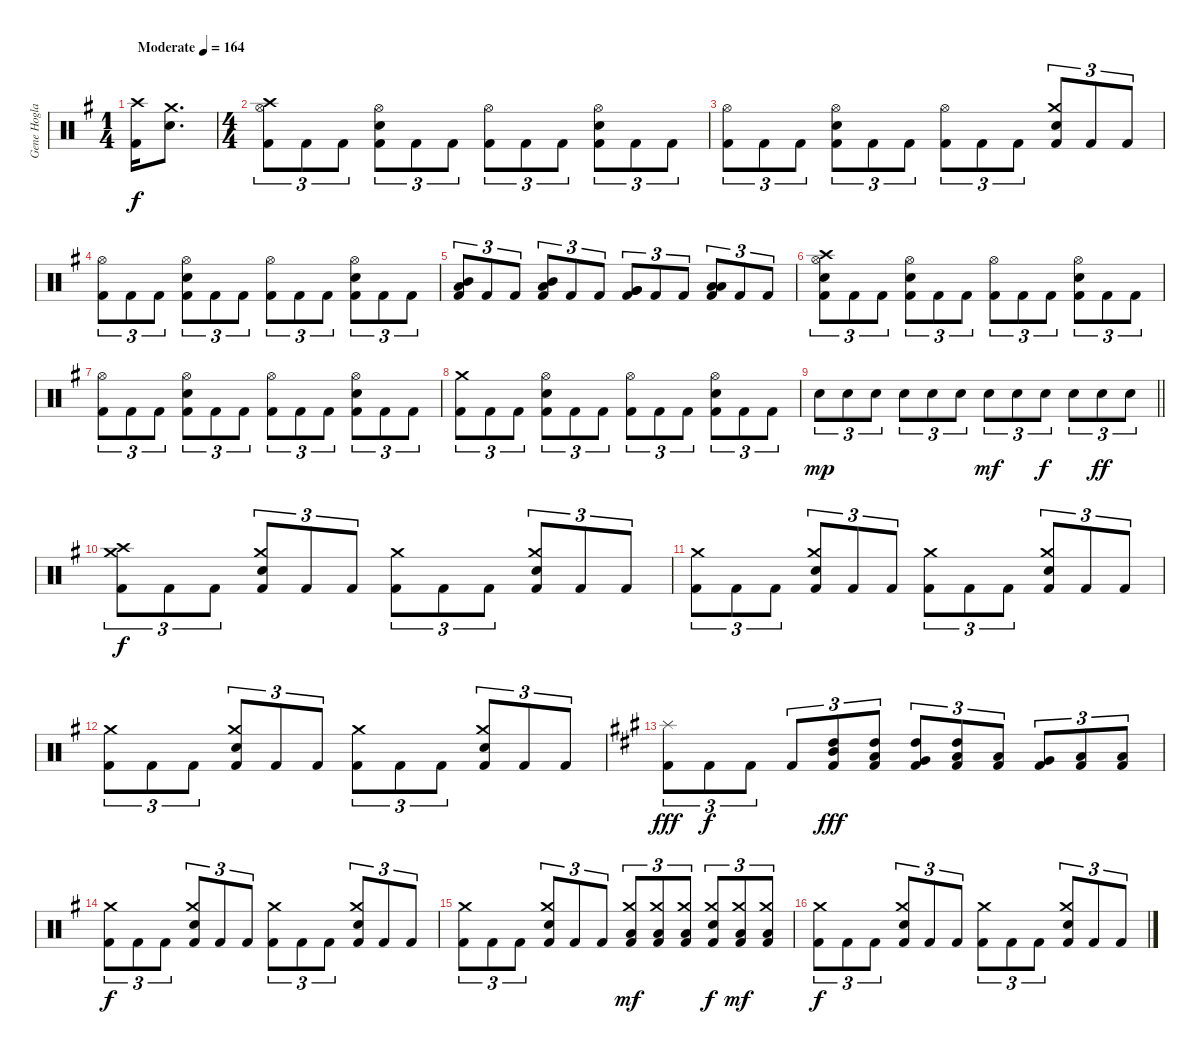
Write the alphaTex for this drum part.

\track ("Gene Hoglan" "Gene Hogla") {instrument percussion}
\staff {score}
\articulation defaults
\ts (1 4)
\tempo (164 "Moderate")
\clef neutral
\ks g
("Crash high (hit)" "Kick (hit) 2").16{dy f} ("Crash medium (hit)" "Electric Snare (hit)").8{d} |
\ts (4 4)
("Crash high (hit)" "Hi-Hat (open)" "Kick (hit) 2").8{tu (3 2)} "Kick (hit) 2".8{tu (3 2)} "Kick (hit) 2".8{tu (3 2)} ("Hi-Hat (open)" "Electric Snare (hit)" "Kick (hit) 2").8{tu (3 2)} "Kick (hit) 2".8{tu (3 2)} "Kick (hit) 2".8{tu (3 2)} ("Hi-Hat (open)" "Kick (hit) 2").8{tu (3 2)} "Kick (hit) 2".8{tu (3 2)} "Kick (hit) 2".8{tu (3 2)} ("Hi-Hat (open)" "Electric Snare (hit)" "Kick (hit) 2").8{tu (3 2)} "Kick (hit) 2".8{tu (3 2)} "Kick (hit) 2".8{tu (3 2)} |
("Hi-Hat (open)" "Kick (hit) 2").8{tu (3 2)} "Kick (hit) 2".8{tu (3 2)} "Kick (hit) 2".8{tu (3 2)} ("Hi-Hat (open)" "Electric Snare (hit)" "Kick (hit) 2").8{tu (3 2)} "Kick (hit) 2".8{tu (3 2)} "Kick (hit) 2".8{tu (3 2)} ("Hi-Hat (open)" "Kick (hit) 2").8{tu (3 2)} "Kick (hit) 2".8{tu (3 2)} "Kick (hit) 2".8{tu (3 2)} ("Crash medium (hit)" "Electric Snare (hit)" "Kick (hit) 2").8{tu (3 2)} "Kick (hit) 2".8{tu (3 2)} "Kick (hit) 2".8{tu (3 2)} |
("Hi-Hat (open)" "Kick (hit) 2").8{tu (3 2)} "Kick (hit) 2".8{tu (3 2)} "Kick (hit) 2".8{tu (3 2)} ("Hi-Hat (open)" "Electric Snare (hit)" "Kick (hit) 2").8{tu (3 2)} "Kick (hit) 2".8{tu (3 2)} "Kick (hit) 2".8{tu (3 2)} ("Hi-Hat (open)" "Kick (hit) 2").8{tu (3 2)} "Kick (hit) 2".8{tu (3 2)} "Kick (hit) 2".8{tu (3 2)} ("Hi-Hat (open)" "Electric Snare (hit)" "Kick (hit) 2").8{tu (3 2)} "Kick (hit) 2".8{tu (3 2)} "Kick (hit) 2".8{tu (3 2)} |
("Low Tom (hit)" "Mid Tom (hit)" "Kick (hit) 2").8{tu (3 2)} "Kick (hit) 2".8{tu (3 2)} "Kick (hit) 2".8{tu (3 2)} ("Low Tom (hit)" "Mid Tom (hit)" "Kick (hit) 2").8{tu (3 2)} "Kick (hit) 2".8{tu (3 2)} "Kick (hit) 2".8{tu (3 2)} ("Very Low Tom (hit)" "Very Low Tom (hit)" "Kick (hit) 2").8{tu (3 2)} "Kick (hit) 2".8{tu (3 2)} "Kick (hit) 2".8{tu (3 2)} ("Low Floor Tom (hit)" "Low Floor Tom (hit)" "Kick (hit) 2").8{tu (3 2)} "Kick (hit) 2".8{tu (3 2)} "Kick (hit) 2".8{tu (3 2)} |
("Crash high (hit)" "Hi-Hat (open)" "Electric Snare (hit)" "Kick (hit) 2").8{tu (3 2)} "Kick (hit) 2".8{tu (3 2)} "Kick (hit) 2".8{tu (3 2)} ("Hi-Hat (open)" "Electric Snare (hit)" "Kick (hit) 2").8{tu (3 2)} "Kick (hit) 2".8{tu (3 2)} "Kick (hit) 2".8{tu (3 2)} ("Hi-Hat (open)" "Kick (hit) 2").8{tu (3 2)} "Kick (hit) 2".8{tu (3 2)} "Kick (hit) 2".8{tu (3 2)} ("Hi-Hat (open)" "Electric Snare (hit)" "Kick (hit) 2").8{tu (3 2)} "Kick (hit) 2".8{tu (3 2)} "Kick (hit) 2".8{tu (3 2)} |
("Hi-Hat (open)" "Kick (hit) 2").8{tu (3 2)} "Kick (hit) 2".8{tu (3 2)} "Kick (hit) 2".8{tu (3 2)} ("Hi-Hat (open)" "Electric Snare (hit)" "Kick (hit) 2").8{tu (3 2)} "Kick (hit) 2".8{tu (3 2)} "Kick (hit) 2".8{tu (3 2)} ("Hi-Hat (open)" "Kick (hit) 2").8{tu (3 2)} "Kick (hit) 2".8{tu (3 2)} "Kick (hit) 2".8{tu (3 2)} ("Hi-Hat (open)" "Electric Snare (hit)" "Kick (hit) 2").8{tu (3 2)} "Kick (hit) 2".8{tu (3 2)} "Kick (hit) 2".8{tu (3 2)} |
("Crash medium (hit)" "Kick (hit) 2").8{tu (3 2)} "Kick (hit) 2".8{tu (3 2)} "Kick (hit) 2".8{tu (3 2)} ("Hi-Hat (open)" "Electric Snare (hit)" "Kick (hit) 2").8{tu (3 2)} "Kick (hit) 2".8{tu (3 2)} "Kick (hit) 2".8{tu (3 2)} ("Hi-Hat (open)" "Kick (hit) 2").8{tu (3 2)} "Kick (hit) 2".8{tu (3 2)} "Kick (hit) 2".8{tu (3 2)} ("Hi-Hat (open)" "Electric Snare (hit)" "Kick (hit) 2").8{tu (3 2)} "Kick (hit) 2".8{tu (3 2)} "Kick (hit) 2".8{tu (3 2)} |
\barLineRight lightlight "Electric Snare (hit)".8{tu (3 2) dy mp} "Electric Snare (hit)".8{tu (3 2)} "Electric Snare (hit)".8{tu (3 2)} "Electric Snare (hit)".8{tu (3 2)} "Electric Snare (hit)".8{tu (3 2)} "Electric Snare (hit)".8{tu (3 2)} "Electric Snare (hit)".8{tu (3 2) dy mf} "Electric Snare (hit)".8{tu (3 2)} "Electric Snare (hit)".8{tu (3 2) dy f} "Electric Snare (hit)".8{tu (3 2)} "Electric Snare (hit)".8{tu (3 2) dy ff} "Electric Snare (hit)".8{tu (3 2)}
|
("Crash medium (hit)" "Crash high (hit)" "Kick (hit) 2").8{tu (3 2) dy f} "Kick (hit) 2".8{tu (3 2)} "Kick (hit) 2".8{tu (3 2)} ("Crash medium (hit)" "Electric Snare (hit)" "Kick (hit) 2").8{tu (3 2)} "Kick (hit) 2".8{tu (3 2)} "Kick (hit) 2".8{tu (3 2)} ("Crash medium (hit)" "Kick (hit) 2").8{tu (3 2)} "Kick (hit) 2".8{tu (3 2)} "Kick (hit) 2".8{tu (3 2)} ("Crash medium (hit)" "Electric Snare (hit)" "Kick (hit) 2").8{tu (3 2)} "Kick (hit) 2".8{tu (3 2)} "Kick (hit) 2".8{tu (3 2)} |
("Crash medium (hit)" "Kick (hit) 2").8{tu (3 2)} "Kick (hit) 2".8{tu (3 2)} "Kick (hit) 2".8{tu (3 2)} ("Crash medium (hit)" "Electric Snare (hit)" "Kick (hit) 2").8{tu (3 2)} "Kick (hit) 2".8{tu (3 2)} "Kick (hit) 2".8{tu (3 2)} ("Crash medium (hit)" "Kick (hit) 2").8{tu (3 2)} "Kick (hit) 2".8{tu (3 2)} "Kick (hit) 2".8{tu (3 2)} ("Crash medium (hit)" "Electric Snare (hit)" "Kick (hit) 2").8{tu (3 2)} "Kick (hit) 2".8{tu (3 2)} "Kick (hit) 2".8{tu (3 2)} |
("Crash medium (hit)" "Kick (hit) 2").8{tu (3 2)} "Kick (hit) 2".8{tu (3 2)} "Kick (hit) 2".8{tu (3 2)} ("Crash medium (hit)" "Electric Snare (hit)" "Kick (hit) 2").8{tu (3 2)} "Kick (hit) 2".8{tu (3 2)} "Kick (hit) 2".8{tu (3 2)} ("Crash medium (hit)" "Kick (hit) 2").8{tu (3 2)} "Kick (hit) 2".8{tu (3 2)} "Kick (hit) 2".8{tu (3 2)} ("Crash medium (hit)" "Electric Snare (hit)" "Kick (hit) 2").8{tu (3 2)} "Kick (hit) 2".8{tu (3 2)} "Kick (hit) 2".8{tu (3 2)} |
\ks a
("Splash (hit)" "Kick (hit) 2").8{tu (3 2) dy fff} "Kick (hit) 2".8{tu (3 2) dy f} "Kick (hit) 2".8{tu (3 2)} "Kick (hit) 2".8{tu (3 2)} ("High Tom (hit)" "Mid Tom (hit)" "Kick (hit) 2").8{tu (3 2) dy fff} ("High Tom (hit)" "Low Tom (hit)" "Kick (hit) 2").8{tu (3 2)} ("High Tom (hit)" "Very Low Tom (hit)" "Kick (hit) 2").8{tu (3 2)} ("High Tom (hit)" "Low Tom (hit)" "Kick (hit) 2").8{tu (3 2)} ("Low Tom (hit)" "Kick (hit) 2").8{tu (3 2)} ("Very Low Tom (hit)" "Kick (hit) 2").8{tu (3 2)} ("Low Floor Tom (hit)" "Kick (hit) 2").8{tu (3 2)} ("Low Floor Tom (hit)" "Kick (hit) 2").8{tu (3 2)} |
\ks g
("Crash medium (hit)" "Kick (hit) 2").8{tu (3 2) dy f} "Kick (hit) 2".8{tu (3 2)} "Kick (hit) 2".8{tu (3 2)} ("Crash medium (hit)" "Electric Snare (hit)" "Kick (hit) 2").8{tu (3 2)} "Kick (hit) 2".8{tu (3 2)} "Kick (hit) 2".8{tu (3 2)} ("Crash medium (hit)" "Kick (hit) 2").8{tu (3 2)} "Kick (hit) 2".8{tu (3 2)} "Kick (hit) 2".8{tu (3 2)} ("Crash medium (hit)" "Electric Snare (hit)" "Kick (hit) 2").8{tu (3 2)} "Kick (hit) 2".8{tu (3 2)} "Kick (hit) 2".8{tu (3 2)} |
("Crash medium (hit)" "Kick (hit) 2").8{tu (3 2)} "Kick (hit) 2".8{tu (3 2)} "Kick (hit) 2".8{tu (3 2)} ("Crash medium (hit)" "Electric Snare (hit)" "Kick (hit) 2").8{tu (3 2)} "Kick (hit) 2".8{tu (3 2)} "Kick (hit) 2".8{tu (3 2)} ("Crash medium (hit)" "Low Tom (hit)" "Kick (hit) 2").8{tu (3 2) dy mf} ("Crash medium (hit)" "Low Tom (hit)" "Kick (hit) 2").8{tu (3 2)} ("Crash medium (hit)" "Low Tom (hit)" "Kick (hit) 2").8{tu (3 2)} ("Crash medium (hit)" "Electric Snare (hit)" "Kick (hit) 2").8{tu (3 2) dy f} ("Crash medium (hit)" "Low Tom (hit)" "Kick (hit) 2").8{tu (3 2) dy mf} ("Crash medium (hit)" "Low Tom (hit)" "Kick (hit) 2").8{tu (3 2)} |
("Crash medium (hit)" "Kick (hit) 2").8{tu (3 2) dy f} "Kick (hit) 2".8{tu (3 2)} "Kick (hit) 2".8{tu (3 2)} ("Crash medium (hit)" "Electric Snare (hit)" "Kick (hit) 2").8{tu (3 2)} "Kick (hit) 2".8{tu (3 2)} "Kick (hit) 2".8{tu (3 2)} ("Crash medium (hit)" "Kick (hit) 2").8{tu (3 2)} "Kick (hit) 2".8{tu (3 2)} "Kick (hit) 2".8{tu (3 2)} ("Crash medium (hit)" "Electric Snare (hit)" "Kick (hit) 2").8{tu (3 2)} "Kick (hit) 2".8{tu (3 2)} "Kick (hit) 2".8{tu (3 2)}
